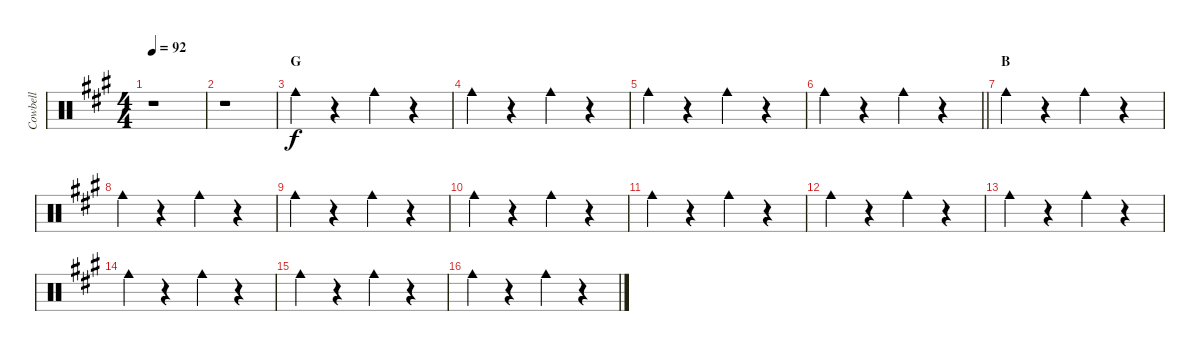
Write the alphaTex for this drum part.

\track ("Cowbell" "Cowbell") {instrument percussion}
\staff {score}
\articulation defaults
\ts (4 4)
\tempo 92
\clef neutral
\ks a
r.1{dy f} |
r.1 |
\section ("" "G")
"Cowbell medium (hit)".4 r.4 "Cowbell medium (hit)".4 r.4 |
"Cowbell medium (hit)".4 r.4 "Cowbell medium (hit)".4 r.4 |
"Cowbell medium (hit)".4 r.4 "Cowbell medium (hit)".4 r.4 |
\barLineRight lightlight "Cowbell medium (hit)".4
r.4 "Cowbell medium (hit)".4 r.4 |
\section ("" "B")
"Cowbell medium (hit)".4 r.4 "Cowbell medium (hit)".4 r.4 |
"Cowbell medium (hit)".4 r.4 "Cowbell medium (hit)".4 r.4 |
"Cowbell medium (hit)".4 r.4 "Cowbell medium (hit)".4 r.4 |
"Cowbell medium (hit)".4 r.4 "Cowbell medium (hit)".4 r.4 |
"Cowbell medium (hit)".4 r.4 "Cowbell medium (hit)".4 r.4 |
"Cowbell medium (hit)".4 r.4 "Cowbell medium (hit)".4 r.4 |
"Cowbell medium (hit)".4 r.4 "Cowbell medium (hit)".4 r.4 |
"Cowbell medium (hit)".4 r.4 "Cowbell medium (hit)".4 r.4 |
"Cowbell medium (hit)".4 r.4 "Cowbell medium (hit)".4 r.4 |
"Cowbell medium (hit)".4 r.4 "Cowbell medium (hit)".4 r.4
